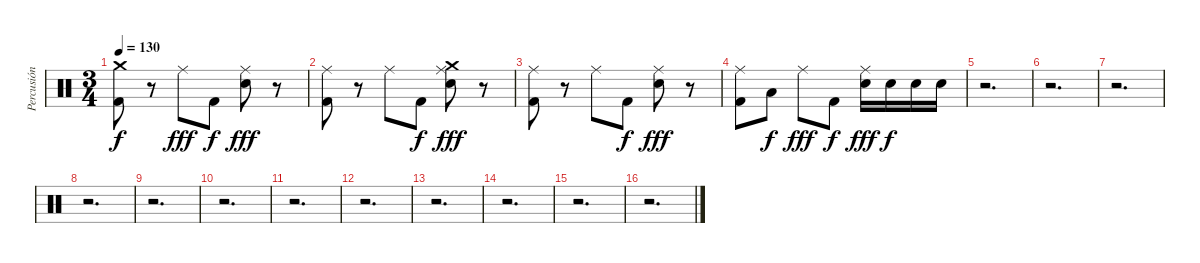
\track ("Percusión" "Percusión") {instrument percussion}
\staff {score}
\articulation defaults
\ts (3 4)
\tempo 130
\clef neutral
\ks c
("Crash medium (hit)" "Kick (hit) 2").8{dy f} r.8 "Ride (middle)".8{dy fff} "Kick (hit) 2".8{dy f} ("Ride (middle)" "Electric Snare (hit)").8{dy fff} r.8 |
("Ride (middle)" "Kick (hit) 2").8 r.8 "Ride (middle)".8 "Kick (hit) 2".8{dy f} ("Crash medium (hit)" "Ride (middle)" "Electric Snare (hit)").8{dy fff} r.8 |
("Ride (middle)" "Kick (hit) 2").8 r.8 "Ride (middle)".8 "Kick (hit) 2".8{dy f} ("Ride (middle)" "Electric Snare (hit)").8{dy fff} r.8 |
("Ride (middle)" "Kick (hit) 2").8 "Low Tom (hit)".8{dy f} "Ride (middle)".8{dy fff} "Kick (hit) 2".8{dy f} ("Ride (middle)" "Electric Snare (hit)").16{dy fff} "Electric Snare (hit)".16{dy f} "Electric Snare (hit)".16 "Electric Snare (hit)".16 |
r.2{d} |
r.2{d} |
r.2{d} |
r.2{d} |
r.2{d} |
r.2{d} |
r.2{d} |
r.2{d} |
r.2{d} |
r.2{d} |
r.2{d} |
r.2{d}
